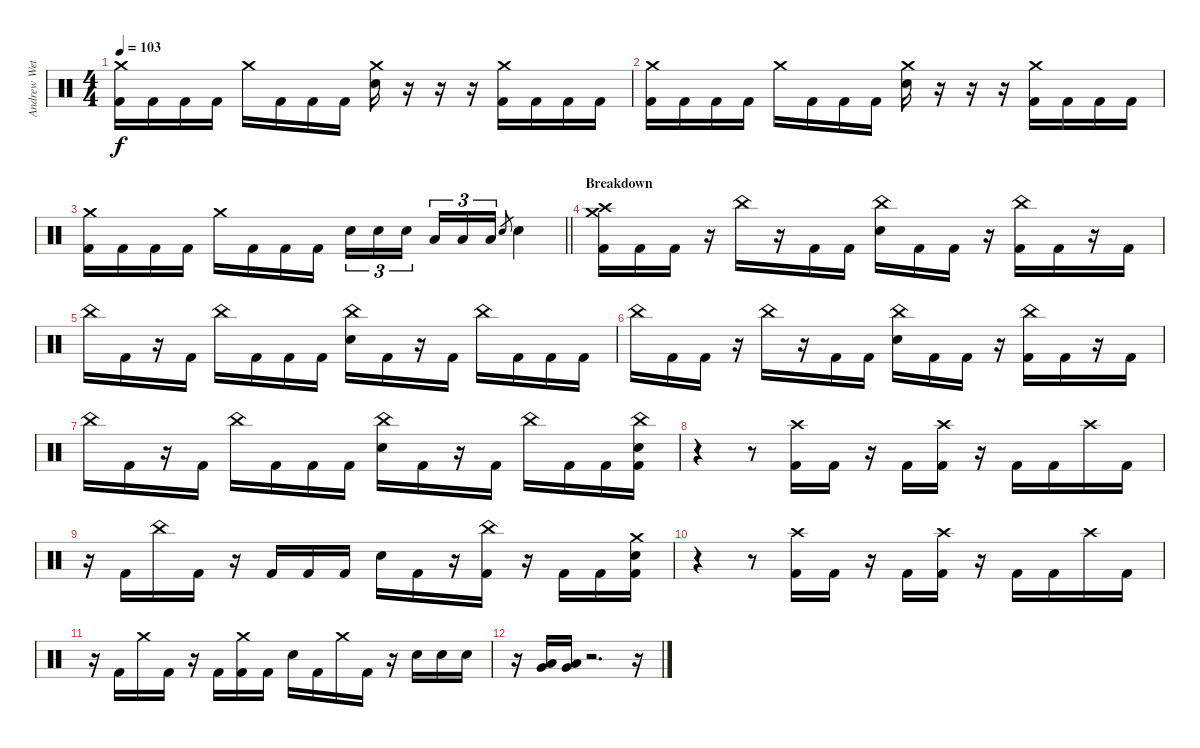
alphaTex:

\track ("Andrew Wetzel - Drums" "Andrew Wet") {instrument percussion}
\staff {score}
\articulation defaults
\ts (4 4)
\tempo 103
\clef neutral
\ks c
("Crash medium (hit)" "Kick (hit) 2").16{dy f} "Kick (hit) 2".16 "Kick (hit) 2".16 "Kick (hit) 2".16 "Crash medium (hit)".16 "Kick (hit) 2".16 "Kick (hit) 2".16 "Kick (hit) 2".16 ("Crash medium (hit)" "Electric Snare (hit)").16 r.16 r.16 r.16 ("Crash medium (hit)" "Kick (hit) 2").16 "Kick (hit) 2".16 "Kick (hit) 2".16 "Kick (hit) 2".16 |
("Crash medium (hit)" "Kick (hit) 2").16 "Kick (hit) 2".16 "Kick (hit) 2".16 "Kick (hit) 2".16 "Crash medium (hit)".16 "Kick (hit) 2".16 "Kick (hit) 2".16 "Kick (hit) 2".16 ("Crash medium (hit)" "Electric Snare (hit)").16 r.16 r.16 r.16 ("Crash medium (hit)" "Kick (hit) 2").16 "Kick (hit) 2".16 "Kick (hit) 2".16 "Kick (hit) 2".16 |
\barLineRight lightlight
("Crash medium (hit)" "Kick (hit) 2").16 "Kick (hit) 2".16 "Kick (hit) 2".16 "Kick (hit) 2".16 "Crash medium (hit)".16 "Kick (hit) 2".16 "Kick (hit) 2".16 "Kick (hit) 2".16 "Electric Snare (hit)".16{tu (3 2)} "Electric Snare (hit)".16{tu (3 2)} "Electric Snare (hit)".16{tu (3 2) beam splitsecondary} "Low Tom (hit)".16{tu (3 2)} "Low Tom (hit)".16{tu (3 2)} "Low Tom (hit)".16{tu (3 2)} "Electric Snare (hit)".8{gr} "Electric Snare (hit)".4 |
\section ("" "Breakdown")
("Crash high (hit)" "Crash medium (hit)" "Kick (hit) 2").16 "Kick (hit) 2".16 "Kick (hit) 2".16 r.16 "China (hit)".16 r.16 "Kick (hit) 2".16 "Kick (hit) 2".16 ("China (hit)" "Electric Snare (hit)").16 "Kick (hit) 2".16 "Kick (hit) 2".16 r.16 ("China (hit)" "Kick (hit) 2").16 "Kick (hit) 2".16 r.16 "Kick (hit) 2".16 |
"China (hit)".16 "Kick (hit) 2".16 r.16 "Kick (hit) 2".16 "China (hit)".16 "Kick (hit) 2".16 "Kick (hit) 2".16 "Kick (hit) 2".16 ("China (hit)" "Electric Snare (hit)").16 "Kick (hit) 2".16 r.16 "Kick (hit) 2".16 "China (hit)".16 "Kick (hit) 2".16 "Kick (hit) 2".16 "Kick (hit) 2".16 |
"China (hit)".16 "Kick (hit) 2".16 "Kick (hit) 2".16 r.16 "China (hit)".16 r.16 "Kick (hit) 2".16 "Kick (hit) 2".16 ("China (hit)" "Electric Snare (hit)").16 "Kick (hit) 2".16 "Kick (hit) 2".16 r.16 ("China (hit)" "Kick (hit) 2").16 "Kick (hit) 2".16 r.16 "Kick (hit) 2".16 |
"China (hit)".16 "Kick (hit) 2".16 r.16 "Kick (hit) 2".16 "China (hit)".16 "Kick (hit) 2".16 "Kick (hit) 2".16 "Kick (hit) 2".16 ("China (hit)" "Electric Snare (hit)").16 "Kick (hit) 2".16 r.16 "Kick (hit) 2".16 "China (hit)".16 "Kick (hit) 2".16 "Kick (hit) 2".16 ("China (hit)" "Electric Snare (hit)" "Kick (hit) 2").16 |
r.4 r.8 ("Crash high (hit)" "Kick (hit) 2").16 "Kick (hit) 2".16 r.16 "Kick (hit) 2".16 ("Crash high (hit)" "Kick (hit) 2").16 r.16 "Kick (hit) 2".16 "Kick (hit) 2".16 "Crash high (hit)".16 "Kick (hit) 2".16 |
r.16 "Kick (hit) 2".16 "China (hit)".16 "Kick (hit) 2".16 r.16 "Kick (hit) 2".16 "Kick (hit) 2".16 "Kick (hit) 2".16 "Electric Snare (hit)".16 "Kick (hit) 2".16 r.16 ("China (hit)" "Kick (hit) 2").16 r.16 "Kick (hit) 2".16 "Kick (hit) 2".16 ("Crash medium (hit)" "Electric Snare (hit)" "Kick (hit) 2").16 |
r.4 r.8 ("Crash high (hit)" "Kick (hit) 2").16 "Kick (hit) 2".16 r.16 "Kick (hit) 2".16 ("Crash high (hit)" "Kick (hit) 2").16 r.16 "Kick (hit) 2".16 "Kick (hit) 2".16 "Crash high (hit)".16 "Kick (hit) 2".16 |
r.16 "Kick (hit) 2".16 "Crash medium (hit)".16 "Kick (hit) 2".16 r.16 "Kick (hit) 2".16 ("Crash medium (hit)" "Kick (hit) 2").16 "Kick (hit) 2".16 "Electric Snare (hit)".16 "Kick (hit) 2".16 "Crash medium (hit)".16 "Kick (hit) 2".16 r.16 "Electric Snare (hit)".16 "Electric Snare (hit)".16 "Electric Snare (hit)".16 |
r.16 ("Very Low Tom (hit)" "Low Floor Tom (hit)").16 ("Low Floor Tom (hit)" "Very Low Tom (hit)").16 r.2{d} r.16
